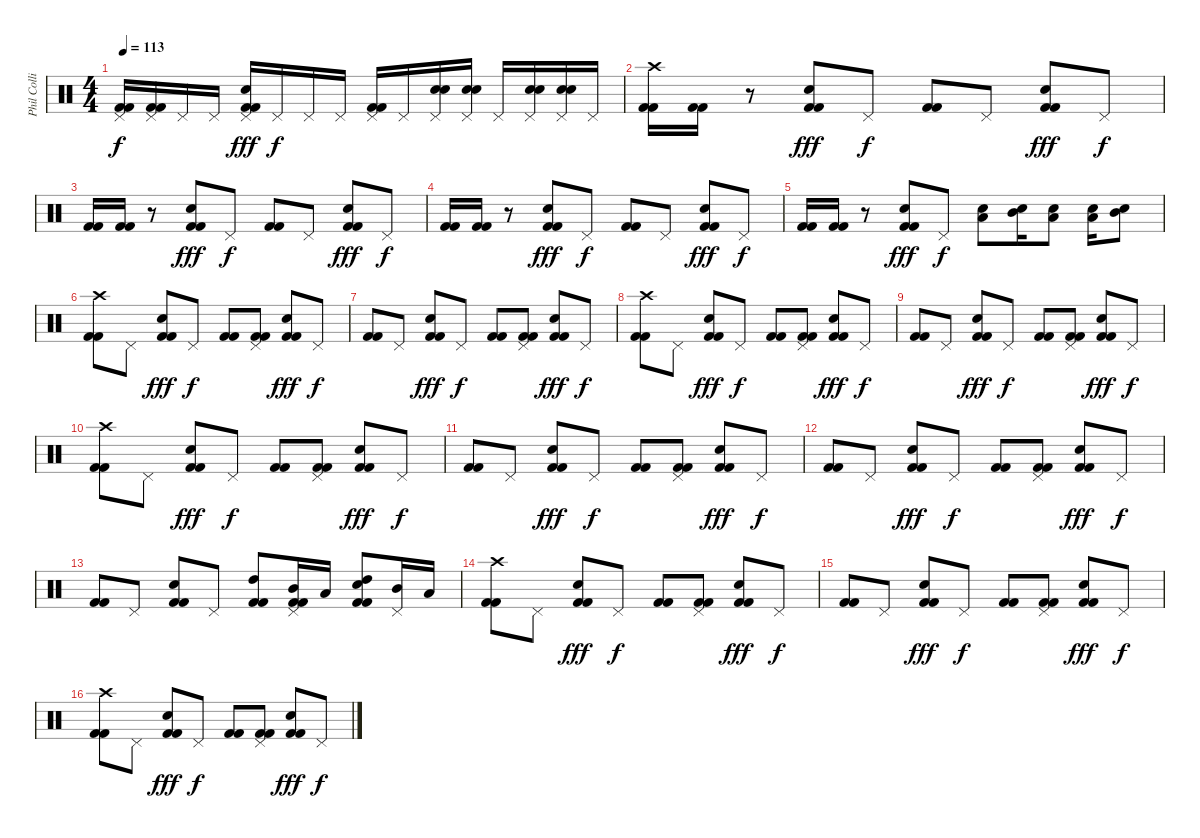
\track ("Phil Collins" "Phil Colli") {instrument percussion}
\staff {score}
\articulation defaults
\ts (4 4)
\tempo 113
\clef neutral
\ks c
("Pedal Hi-Hat (hit)" "Kick (hit) 2" "Kick (hit) 2").16{dy f} ("Pedal Hi-Hat (hit)" "Kick (hit) 2" "Kick (hit) 2").16 "Pedal Hi-Hat (hit)".16 "Pedal Hi-Hat (hit)".16 ("Pedal Hi-Hat (hit)" "Electric Snare (hit)" "Kick (hit) 2" "Kick (hit) 2").16{dy fff} "Pedal Hi-Hat (hit)".16{dy f} "Pedal Hi-Hat (hit)".16 "Pedal Hi-Hat (hit)".16 ("Pedal Hi-Hat (hit)" "Kick (hit) 2" "Kick (hit) 2").16 "Pedal Hi-Hat (hit)".16 ("Pedal Hi-Hat (hit)" "Electric Snare (hit)" "Electric Snare (hit)").16 ("Pedal Hi-Hat (hit)" "Electric Snare (hit)" "Electric Snare (hit)").16 "Pedal Hi-Hat (hit)".16 ("Pedal Hi-Hat (hit)" "Electric Snare (hit)" "Electric Snare (hit)").16 ("Pedal Hi-Hat (hit)" "Electric Snare (hit)" "Electric Snare (hit)").16 "Pedal Hi-Hat (hit)".16 |
("Crash high (hit)" "Kick (hit) 2" "Kick (hit) 2").16 ("Kick (hit) 2" "Kick (hit) 2").16 r.8 ("Electric Snare (hit)" "Kick (hit) 2" "Kick (hit) 2").8{dy fff} "Pedal Hi-Hat (hit)".8{dy f} ("Kick (hit) 2" "Kick (hit) 2").8 "Pedal Hi-Hat (hit)".8 ("Electric Snare (hit)" "Kick (hit) 2" "Kick (hit) 2").8{dy fff} "Pedal Hi-Hat (hit)".8{dy f} |
("Kick (hit) 2" "Kick (hit) 2").16 ("Kick (hit) 2" "Kick (hit) 2").16 r.8 ("Electric Snare (hit)" "Kick (hit) 2" "Kick (hit) 2").8{dy fff} "Pedal Hi-Hat (hit)".8{dy f} ("Kick (hit) 2" "Kick (hit) 2").8 "Pedal Hi-Hat (hit)".8 ("Electric Snare (hit)" "Kick (hit) 2" "Kick (hit) 2").8{dy fff} "Pedal Hi-Hat (hit)".8{dy f} |
("Kick (hit) 2" "Kick (hit) 2").16 ("Kick (hit) 2" "Kick (hit) 2").16 r.8 ("Electric Snare (hit)" "Kick (hit) 2" "Kick (hit) 2").8{dy fff} "Pedal Hi-Hat (hit)".8{dy f} ("Kick (hit) 2" "Kick (hit) 2").8 "Pedal Hi-Hat (hit)".8 ("Electric Snare (hit)" "Kick (hit) 2" "Kick (hit) 2").8{dy fff} "Pedal Hi-Hat (hit)".8{dy f} |
("Kick (hit) 2" "Kick (hit) 2").16 ("Kick (hit) 2" "Kick (hit) 2").16 r.8 ("Electric Snare (hit)" "Kick (hit) 2" "Kick (hit) 2").8{dy fff} "Pedal Hi-Hat (hit)".8{dy f} ("Electric Snare (hit)" "Low Tom (hit)").8 ("Electric Snare (hit)" "Mid Tom (hit)").16 ("Electric Snare (hit)" "Low Tom (hit)").8 ("Electric Snare (hit)" "Low Tom (hit)").16 ("Electric Snare (hit)" "Mid Tom (hit)").8 |
("Crash high (hit)" "Kick (hit) 2" "Kick (hit) 2").8 "Pedal Hi-Hat (hit)".8 ("Electric Snare (hit)" "Kick (hit) 2" "Kick (hit) 2").8{dy fff} "Pedal Hi-Hat (hit)".8{dy f} ("Kick (hit) 2" "Kick (hit) 2").8 ("Pedal Hi-Hat (hit)" "Kick (hit) 2" "Kick (hit) 2").8 ("Electric Snare (hit)" "Kick (hit) 2" "Kick (hit) 2").8{dy fff} "Pedal Hi-Hat (hit)".8{dy f} |
("Kick (hit) 2" "Kick (hit) 2").8 "Pedal Hi-Hat (hit)".8 ("Electric Snare (hit)" "Kick (hit) 2" "Kick (hit) 2").8{dy fff} "Pedal Hi-Hat (hit)".8{dy f} ("Kick (hit) 2" "Kick (hit) 2").8 ("Pedal Hi-Hat (hit)" "Kick (hit) 2" "Kick (hit) 2").8 ("Electric Snare (hit)" "Kick (hit) 2" "Kick (hit) 2").8{dy fff} "Pedal Hi-Hat (hit)".8{dy f} |
("Crash high (hit)" "Kick (hit) 2" "Kick (hit) 2").8 "Pedal Hi-Hat (hit)".8 ("Electric Snare (hit)" "Kick (hit) 2" "Kick (hit) 2").8{dy fff} "Pedal Hi-Hat (hit)".8{dy f} ("Kick (hit) 2" "Kick (hit) 2").8 ("Pedal Hi-Hat (hit)" "Kick (hit) 2" "Kick (hit) 2").8 ("Electric Snare (hit)" "Kick (hit) 2" "Kick (hit) 2").8{dy fff} "Pedal Hi-Hat (hit)".8{dy f} |
("Kick (hit) 2" "Kick (hit) 2").8 "Pedal Hi-Hat (hit)".8 ("Electric Snare (hit)" "Kick (hit) 2" "Kick (hit) 2").8{dy fff} "Pedal Hi-Hat (hit)".8{dy f} ("Kick (hit) 2" "Kick (hit) 2").8 ("Pedal Hi-Hat (hit)" "Kick (hit) 2" "Kick (hit) 2").8 ("Electric Snare (hit)" "Kick (hit) 2" "Kick (hit) 2").8{dy fff} "Pedal Hi-Hat (hit)".8{dy f} |
("Crash high (hit)" "Kick (hit) 2" "Kick (hit) 2").8 "Pedal Hi-Hat (hit)".8 ("Electric Snare (hit)" "Kick (hit) 2" "Kick (hit) 2").8{dy fff} "Pedal Hi-Hat (hit)".8{dy f} ("Kick (hit) 2" "Kick (hit) 2").8 ("Pedal Hi-Hat (hit)" "Kick (hit) 2" "Kick (hit) 2").8 ("Electric Snare (hit)" "Kick (hit) 2" "Kick (hit) 2").8{dy fff} "Pedal Hi-Hat (hit)".8{dy f} |
("Kick (hit) 2" "Kick (hit) 2").8 "Pedal Hi-Hat (hit)".8 ("Electric Snare (hit)" "Kick (hit) 2" "Kick (hit) 2").8{dy fff} "Pedal Hi-Hat (hit)".8{dy f} ("Kick (hit) 2" "Kick (hit) 2").8 ("Pedal Hi-Hat (hit)" "Kick (hit) 2" "Kick (hit) 2").8 ("Electric Snare (hit)" "Kick (hit) 2" "Kick (hit) 2").8{dy fff} "Pedal Hi-Hat (hit)".8{dy f} |
("Kick (hit) 2" "Kick (hit) 2").8 "Pedal Hi-Hat (hit)".8 ("Electric Snare (hit)" "Kick (hit) 2" "Kick (hit) 2").8{dy fff} "Pedal Hi-Hat (hit)".8{dy f} ("Kick (hit) 2" "Kick (hit) 2").8 ("Pedal Hi-Hat (hit)" "Kick (hit) 2" "Kick (hit) 2").8 ("Electric Snare (hit)" "Kick (hit) 2" "Kick (hit) 2").8{dy fff} "Pedal Hi-Hat (hit)".8{dy f} |
("Kick (hit) 2" "Kick (hit) 2").8 "Pedal Hi-Hat (hit)".8 ("Electric Snare (hit)" "Kick (hit) 2" "Kick (hit) 2").8 "Pedal Hi-Hat (hit)".8 ("High Tom (hit)" "Kick (hit) 2" "Kick (hit) 2").8 ("Pedal Hi-Hat (hit)" "Mid Tom (hit)" "Kick (hit) 2" "Kick (hit) 2").16 "Low Tom (hit)".16 ("High Tom (hit)" "Electric Snare (hit)" "Kick (hit) 2" "Kick (hit) 2").8 ("Pedal Hi-Hat (hit)" "Mid Tom (hit)").16 "Low Tom (hit)".16 |
("Crash high (hit)" "Kick (hit) 2" "Kick (hit) 2").8 "Pedal Hi-Hat (hit)".8 ("Electric Snare (hit)" "Kick (hit) 2" "Kick (hit) 2").8{dy fff} "Pedal Hi-Hat (hit)".8{dy f} ("Kick (hit) 2" "Kick (hit) 2").8 ("Pedal Hi-Hat (hit)" "Kick (hit) 2" "Kick (hit) 2").8 ("Electric Snare (hit)" "Kick (hit) 2" "Kick (hit) 2").8{dy fff} "Pedal Hi-Hat (hit)".8{dy f} |
("Kick (hit) 2" "Kick (hit) 2").8 "Pedal Hi-Hat (hit)".8 ("Electric Snare (hit)" "Kick (hit) 2" "Kick (hit) 2").8{dy fff} "Pedal Hi-Hat (hit)".8{dy f} ("Kick (hit) 2" "Kick (hit) 2").8 ("Pedal Hi-Hat (hit)" "Kick (hit) 2" "Kick (hit) 2").8 ("Electric Snare (hit)" "Kick (hit) 2" "Kick (hit) 2").8{dy fff} "Pedal Hi-Hat (hit)".8{dy f} |
("Crash high (hit)" "Kick (hit) 2" "Kick (hit) 2").8 "Pedal Hi-Hat (hit)".8 ("Electric Snare (hit)" "Kick (hit) 2" "Kick (hit) 2").8{dy fff} "Pedal Hi-Hat (hit)".8{dy f} ("Kick (hit) 2" "Kick (hit) 2").8 ("Pedal Hi-Hat (hit)" "Kick (hit) 2" "Kick (hit) 2").8 ("Electric Snare (hit)" "Kick (hit) 2" "Kick (hit) 2").8{dy fff} "Pedal Hi-Hat (hit)".8{dy f}
